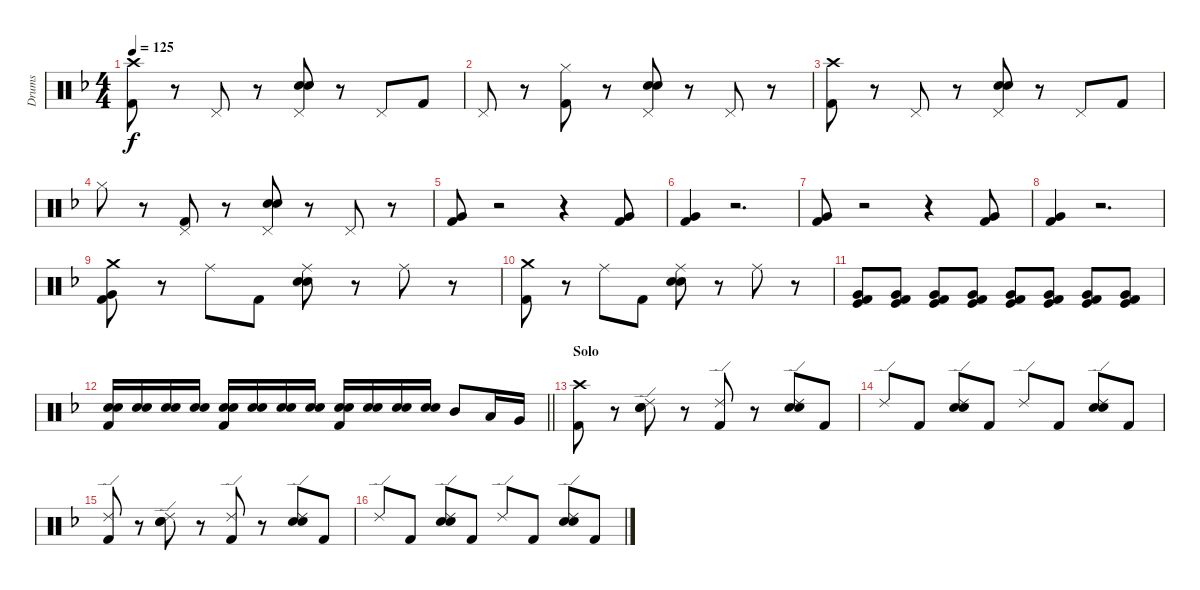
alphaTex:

\track ("Drums" "Drums") {instrument percussion}
\staff {score}
\articulation defaults
\ts (4 4)
\tempo 125
\clef neutral
\ks f
("Crash high (hit)" "Kick (hit) 2").8{dy f} r.8 "Pedal Hi-Hat (hit)".8 r.8 ("Pedal Hi-Hat (hit)" "Electric Snare (hit)" "Snare (hit) 2").8 r.8 "Pedal Hi-Hat (hit)".8 "Kick (hit) 2".8 |
"Pedal Hi-Hat (hit)".8 r.8 ("Hi-Hat (closed)" "Kick (hit) 2").8 r.8 ("Pedal Hi-Hat (hit)" "Electric Snare (hit)" "Snare (hit) 2").8 r.8 "Pedal Hi-Hat (hit)".8 r.8 |
("Crash high (hit)" "Kick (hit) 2").8 r.8 "Pedal Hi-Hat (hit)".8 r.8 ("Pedal Hi-Hat (hit)" "Electric Snare (hit)" "Snare (hit) 2").8 r.8 "Pedal Hi-Hat (hit)".8 "Kick (hit) 2".8 |
"Hi-Hat (closed)".8 r.8 ("Pedal Hi-Hat (hit)" "Kick (hit) 2").8 r.8 ("Pedal Hi-Hat (hit)" "Electric Snare (hit)" "Snare (hit) 2").8 r.8 "Pedal Hi-Hat (hit)".8 r.8 |
("Very Low Tom (hit)" "Kick (hit) 2").8 r.2 r.4 ("Very Low Tom (hit)" "Kick (hit) 2").8 |
("Very Low Tom (hit)" "Kick (hit) 2").4 r.2{d} |
("Very Low Tom (hit)" "Kick (hit) 2").8 r.2 r.4 ("Very Low Tom (hit)" "Kick (hit) 2").8 |
("Very Low Tom (hit)" "Kick (hit) 2").4 r.2{d} |
("Crash medium (hit)" "Very Low Tom (hit)" "Kick (hit) 2").8 r.8 "Ride (middle)".8 "Kick (hit) 2".8 ("Ride (middle)" "Electric Snare (hit)" "Snare (hit) 2").8 r.8 "Ride (middle)".8 r.8 |
("Crash medium (hit)" "Kick (hit) 2").8 r.8 "Ride (middle)".8 "Kick (hit) 2".8 ("Ride (middle)" "Electric Snare (hit)" "Snare (hit) 2").8 r.8 "Ride (middle)".8 r.8 |
("Very Low Tom (hit)" "Kick (hit)" "Kick (hit) 2").8 ("Very Low Tom (hit)" "Kick (hit)" "Kick (hit) 2").8 ("Very Low Tom (hit)" "Kick (hit)" "Kick (hit) 2").8 ("Very Low Tom (hit)" "Kick (hit)" "Kick (hit) 2").8 ("Very Low Tom (hit)" "Kick (hit)" "Kick (hit) 2").8 ("Very Low Tom (hit)" "Kick (hit)" "Kick (hit) 2").8 ("Very Low Tom (hit)" "Kick (hit)" "Kick (hit) 2").8 ("Very Low Tom (hit)" "Kick (hit)" "Kick (hit) 2").8 |
\barLineRight lightlight
("Electric Snare (hit)" "Snare (hit) 2" "Kick (hit) 2").16 ("Electric Snare (hit)" "Snare (hit) 2").16 ("Electric Snare (hit)" "Snare (hit) 2").16 ("Electric Snare (hit)" "Snare (hit) 2").16 ("Electric Snare (hit)" "Snare (hit) 2" "Kick (hit) 2").16 ("Electric Snare (hit)" "Snare (hit) 2").16 ("Electric Snare (hit)" "Snare (hit) 2").16 ("Electric Snare (hit)" "Snare (hit) 2").16 ("Electric Snare (hit)" "Snare (hit) 2" "Kick (hit) 2").16 ("Electric Snare (hit)" "Snare (hit) 2").16 ("Electric Snare (hit)" "Snare (hit) 2").16 ("Electric Snare (hit)" "Snare (hit) 2").16 "Mid Tom (hit)".8 "Low Tom (hit)".16 "Very Low Tom (hit)".16 |
\section ("" "Solo")
("Crash high (hit)" "Kick (hit) 2").8 r.8 ("Ride (edge) 2" "Electric Snare (hit)" "Snare (hit) 2").8 r.8 ("Ride (edge) 2" "Kick (hit) 2").8 r.8 ("Ride (edge) 2" "Electric Snare (hit)" "Snare (hit) 2").8 "Kick (hit) 2".8 |
"Ride (edge) 2".8 "Kick (hit) 2".8 ("Ride (edge) 2" "Electric Snare (hit)" "Snare (hit) 2").8 "Kick (hit) 2".8 "Ride (edge) 2".8 "Kick (hit) 2".8 ("Ride (edge) 2" "Electric Snare (hit)" "Snare (hit) 2").8 "Kick (hit) 2".8 |
("Ride (edge) 2" "Kick (hit) 2").8 r.8 ("Ride (edge) 2" "Electric Snare (hit)" "Snare (hit) 2").8 r.8 ("Ride (edge) 2" "Kick (hit) 2").8 r.8 ("Ride (edge) 2" "Electric Snare (hit)" "Snare (hit) 2").8 "Kick (hit) 2".8 |
"Ride (edge) 2".8 "Kick (hit) 2".8 ("Ride (edge) 2" "Electric Snare (hit)" "Snare (hit) 2").8 "Kick (hit) 2".8 "Ride (edge) 2".8 "Kick (hit) 2".8 ("Ride (edge) 2" "Electric Snare (hit)" "Snare (hit) 2").8 "Kick (hit) 2".8
